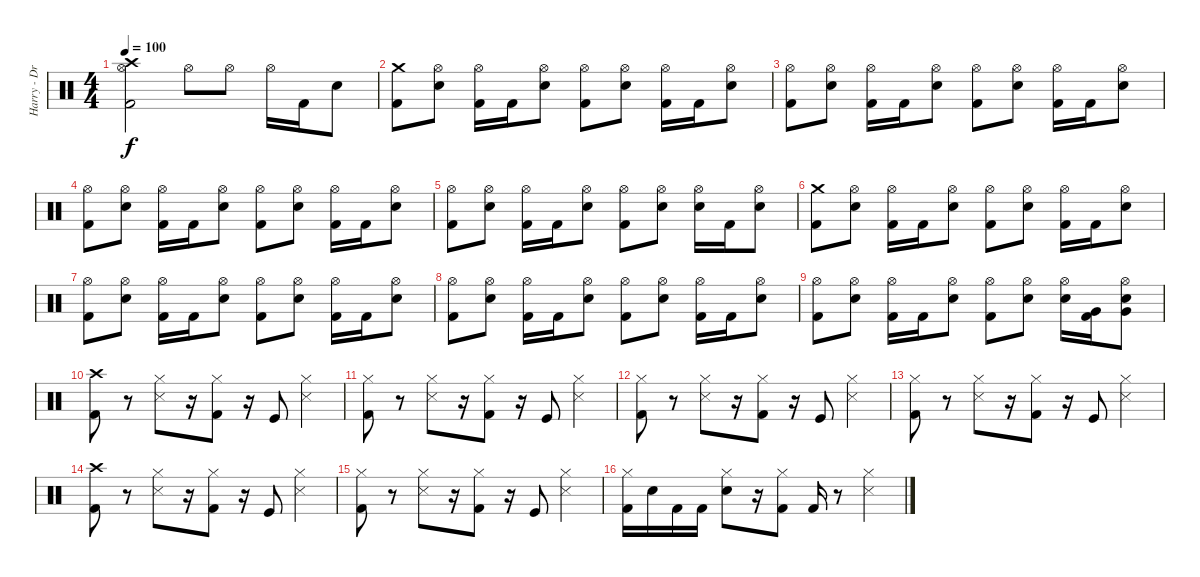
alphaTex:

\track ("Harry - Drums" "Harry - Dr") {instrument percussion}
\staff {score}
\articulation defaults
\ts (4 4)
\tempo 100
\clef neutral
\ks c
("Crash high (hit)" "Kick (hit) 2" "Hi-Hat (open)").2{dy f} "Hi-Hat (open)".8 "Hi-Hat (open)".8 "Hi-Hat (open)".16 "Kick (hit) 2".16 "Snare (hit) 2".8 |
("Crash medium (hit)" "Kick (hit) 2").8 ("Hi-Hat (open)" "Electric Snare (hit)").8 ("Hi-Hat (open)" "Kick (hit) 2").16 "Kick (hit) 2".16 ("Hi-Hat (open)" "Electric Snare (hit)").8 ("Hi-Hat (open)" "Kick (hit) 2").8 ("Hi-Hat (open)" "Electric Snare (hit)").8 ("Hi-Hat (open)" "Kick (hit) 2").16 "Kick (hit) 2".16 ("Hi-Hat (open)" "Electric Snare (hit)").8 |
("Hi-Hat (open)" "Kick (hit) 2").8 ("Hi-Hat (open)" "Electric Snare (hit)").8 ("Hi-Hat (open)" "Kick (hit) 2").16 "Kick (hit) 2".16 ("Hi-Hat (open)" "Electric Snare (hit)").8 ("Hi-Hat (open)" "Kick (hit) 2").8 ("Hi-Hat (open)" "Electric Snare (hit)").8 ("Hi-Hat (open)" "Kick (hit) 2").16 "Kick (hit) 2".16 ("Hi-Hat (open)" "Electric Snare (hit)").8 |
("Hi-Hat (open)" "Kick (hit) 2").8 ("Hi-Hat (open)" "Electric Snare (hit)").8 ("Hi-Hat (open)" "Kick (hit) 2").16 "Kick (hit) 2".16 ("Hi-Hat (open)" "Electric Snare (hit)").8 ("Hi-Hat (open)" "Kick (hit) 2").8 ("Hi-Hat (open)" "Electric Snare (hit)").8 ("Hi-Hat (open)" "Kick (hit) 2").16 "Kick (hit) 2".16 ("Hi-Hat (open)" "Electric Snare (hit)").8 |
("Hi-Hat (open)" "Kick (hit) 2").8 ("Hi-Hat (open)" "Electric Snare (hit)").8 ("Hi-Hat (open)" "Kick (hit) 2").16 "Kick (hit) 2".16 ("Hi-Hat (open)" "Electric Snare (hit)").8 ("Hi-Hat (open)" "Kick (hit) 2").8 ("Hi-Hat (open)" "Electric Snare (hit)").8 ("Snare (hit) 2" "Hi-Hat (open)").16 "Kick (hit) 2".16 ("Hi-Hat (open)" "Electric Snare (hit)").8 |
("Crash medium (hit)" "Kick (hit) 2").8 ("Hi-Hat (open)" "Electric Snare (hit)").8 ("Hi-Hat (open)" "Kick (hit) 2").16 "Kick (hit) 2".16 ("Hi-Hat (open)" "Electric Snare (hit)").8 ("Hi-Hat (open)" "Kick (hit) 2").8 ("Hi-Hat (open)" "Electric Snare (hit)").8 ("Hi-Hat (open)" "Kick (hit) 2").16 "Kick (hit) 2".16 ("Hi-Hat (open)" "Electric Snare (hit)").8 |
("Hi-Hat (open)" "Kick (hit) 2").8 ("Hi-Hat (open)" "Electric Snare (hit)").8 ("Hi-Hat (open)" "Kick (hit) 2").16 "Kick (hit) 2".16 ("Hi-Hat (open)" "Electric Snare (hit)").8 ("Hi-Hat (open)" "Kick (hit) 2").8 ("Hi-Hat (open)" "Electric Snare (hit)").8 ("Hi-Hat (open)" "Kick (hit) 2").16 "Kick (hit) 2".16 ("Hi-Hat (open)" "Electric Snare (hit)").8 |
("Hi-Hat (open)" "Kick (hit) 2").8 ("Hi-Hat (open)" "Electric Snare (hit)").8 ("Hi-Hat (open)" "Kick (hit) 2").16 "Kick (hit) 2".16 ("Hi-Hat (open)" "Electric Snare (hit)").8 ("Hi-Hat (open)" "Kick (hit) 2").8 ("Hi-Hat (open)" "Electric Snare (hit)").8 ("Hi-Hat (open)" "Kick (hit) 2").16 "Kick (hit) 2".16 ("Hi-Hat (open)" "Electric Snare (hit)").8 |
("Hi-Hat (open)" "Kick (hit) 2").8 ("Hi-Hat (open)" "Electric Snare (hit)").8 ("Hi-Hat (open)" "Kick (hit) 2").16 "Kick (hit) 2".16 ("Hi-Hat (open)" "Electric Snare (hit)").8 ("Hi-Hat (open)" "Kick (hit) 2").8 ("Hi-Hat (open)" "Electric Snare (hit)").8 ("Snare (hit) 2" "Hi-Hat (open)").16 ("Very Low Tom (hit)" "Kick (hit) 2").16 ("Very Low Tom (hit)" "Hi-Hat (open)" "Electric Snare (hit)").8 |
("Kick (hit) 2" "Crash high (hit)").8 r.8 ("Hi-Hat (closed)" "Snare (side stick) 3").8 r.16 ("Hi-Hat (closed)" "Kick (hit) 2").8 r.16 "Kick (hit)".8 ("Hi-Hat (closed)" "Snare (side stick) 3").4 |
("Hi-Hat (closed)" "Kick (hit) 2").8 r.8 ("Hi-Hat (closed)" "Snare (side stick) 3").8 r.16 ("Hi-Hat (closed)" "Kick (hit) 2").8 r.16 "Kick (hit)".8 ("Hi-Hat (closed)" "Snare (side stick) 3").4 |
("Hi-Hat (closed)" "Kick (hit) 2").8 r.8 ("Hi-Hat (closed)" "Snare (side stick) 3").8 r.16 ("Hi-Hat (closed)" "Kick (hit) 2").8 r.16 "Kick (hit)".8 ("Hi-Hat (closed)" "Snare (side stick) 3").4 |
("Hi-Hat (closed)" "Kick (hit) 2").8 r.8 ("Hi-Hat (closed)" "Snare (side stick) 3").8 r.16 ("Hi-Hat (closed)" "Kick (hit) 2").8 r.16 "Kick (hit)".8 ("Hi-Hat (closed)" "Snare (side stick) 3").4 |
("Kick (hit) 2" "Crash high (hit)").8 r.8 ("Hi-Hat (closed)" "Snare (side stick) 3").8 r.16 ("Hi-Hat (closed)" "Kick (hit) 2").8 r.16 "Kick (hit)".8 ("Hi-Hat (closed)" "Snare (side stick) 3").4 |
("Hi-Hat (closed)" "Kick (hit) 2").8 r.8 ("Hi-Hat (closed)" "Snare (side stick) 3").8 r.16 ("Hi-Hat (closed)" "Kick (hit) 2").8 r.16 "Kick (hit)".8 ("Hi-Hat (closed)" "Snare (side stick) 3").4 |
("Hi-Hat (closed)" "Kick (hit) 2").16 "Snare (hit) 2".16 "Kick (hit) 2".16 "Kick (hit) 2".16 ("Hi-Hat (closed)" "Snare (hit) 2").8 r.16 ("Hi-Hat (closed)" "Kick (hit) 2").8 "Kick (hit) 2".16 r.8 ("Hi-Hat (closed)" "Snare (side stick) 3").4
